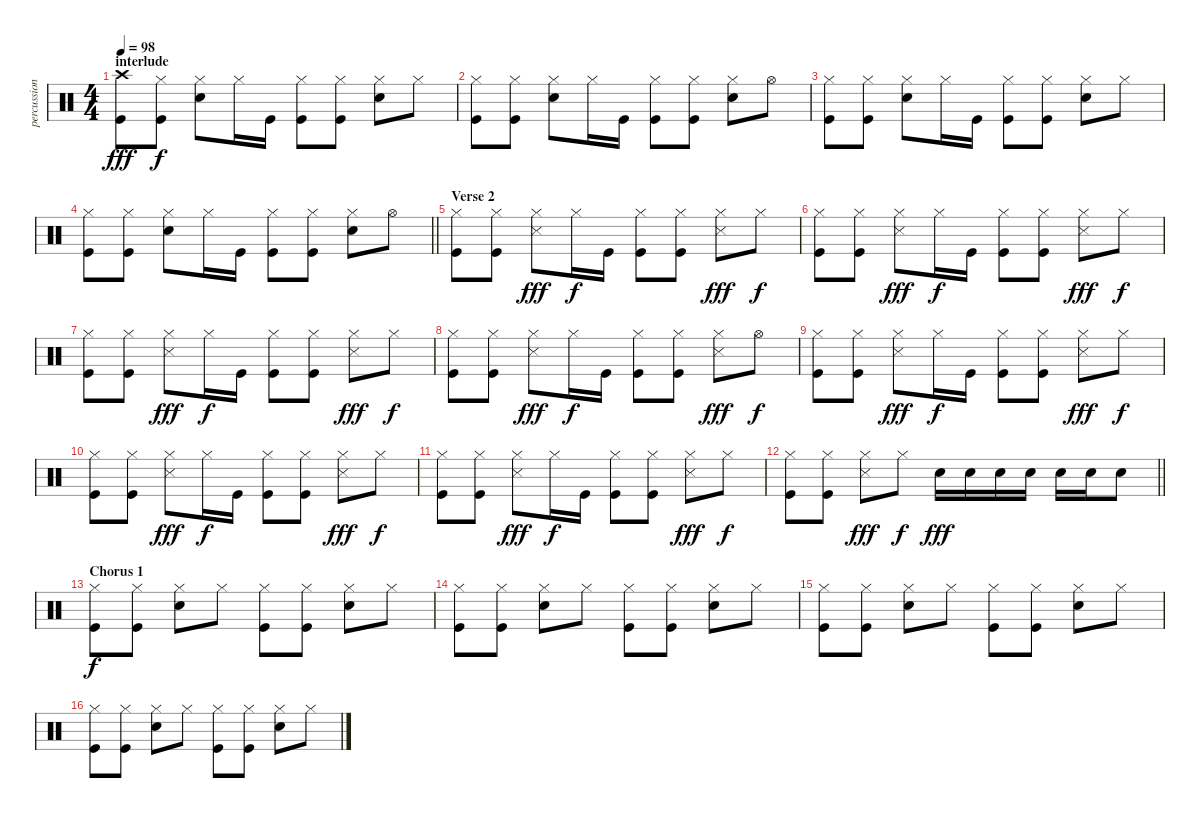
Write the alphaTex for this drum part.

\track ("percussion" "percussion") {instrument percussion}
\staff {score}
\articulation defaults
\ts (4 4)
\section ("" "interlude")
\tempo 98
\clef neutral
\ks c
("Crash high (hit)" "Kick (hit)").8{dy fff} ("Hi-Hat (closed)" "Kick (hit)").8{dy f} ("Electric Snare (hit)" "Hi-Hat (closed)").8 "Hi-Hat (closed)".16 "Kick (hit)".16 ("Hi-Hat (closed)" "Kick (hit)").8 ("Hi-Hat (closed)" "Kick (hit)").8 ("Electric Snare (hit)" "Hi-Hat (closed)").8 "Hi-Hat (closed)".8 |
("Hi-Hat (closed)" "Kick (hit)").8 ("Hi-Hat (closed)" "Kick (hit)").8 ("Electric Snare (hit)" "Hi-Hat (closed)").8 "Hi-Hat (closed)".16 "Kick (hit)".16 ("Hi-Hat (closed)" "Kick (hit)").8 ("Hi-Hat (closed)" "Kick (hit)").8 ("Electric Snare (hit)" "Hi-Hat (closed)").8 "Hi-Hat (open)".8 |
("Hi-Hat (closed)" "Kick (hit)").8 ("Hi-Hat (closed)" "Kick (hit)").8 ("Electric Snare (hit)" "Hi-Hat (closed)").8 "Hi-Hat (closed)".16 "Kick (hit)".16 ("Hi-Hat (closed)" "Kick (hit)").8 ("Hi-Hat (closed)" "Kick (hit)").8 ("Electric Snare (hit)" "Hi-Hat (closed)").8 "Hi-Hat (closed)".8 |
\barLineRight lightlight
("Hi-Hat (closed)" "Kick (hit)").8 ("Hi-Hat (closed)" "Kick (hit)").8 ("Electric Snare (hit)" "Hi-Hat (closed)").8 "Hi-Hat (closed)".16 "Kick (hit)".16 ("Hi-Hat (closed)" "Kick (hit)").8 ("Hi-Hat (closed)" "Kick (hit)").8 ("Electric Snare (hit)" "Hi-Hat (closed)").8 "Hi-Hat (open)".8 |
\section ("" "Verse 2")
("Hi-Hat (closed)" "Kick (hit)").8 ("Hi-Hat (closed)" "Kick (hit)").8 ("Snare (side stick) 3" "Hi-Hat (closed)").8{dy fff} "Hi-Hat (closed)".16{dy f} "Kick (hit)".16 ("Hi-Hat (closed)" "Kick (hit)").8 ("Hi-Hat (closed)" "Kick (hit)").8 ("Snare (side stick) 3" "Hi-Hat (closed)").8{dy fff} "Hi-Hat (closed)".8{dy f} |
("Hi-Hat (closed)" "Kick (hit)").8 ("Hi-Hat (closed)" "Kick (hit)").8 ("Snare (side stick) 3" "Hi-Hat (closed)").8{dy fff} "Hi-Hat (closed)".16{dy f} "Kick (hit)".16 ("Hi-Hat (closed)" "Kick (hit)").8 ("Hi-Hat (closed)" "Kick (hit)").8 ("Snare (side stick) 3" "Hi-Hat (closed)").8{dy fff} "Hi-Hat (closed)".8{dy f} |
("Hi-Hat (closed)" "Kick (hit)").8 ("Hi-Hat (closed)" "Kick (hit)").8 ("Snare (side stick) 3" "Hi-Hat (closed)").8{dy fff} "Hi-Hat (closed)".16{dy f} "Kick (hit)".16 ("Hi-Hat (closed)" "Kick (hit)").8 ("Hi-Hat (closed)" "Kick (hit)").8 ("Snare (side stick) 3" "Hi-Hat (closed)").8{dy fff} "Hi-Hat (closed)".8{dy f} |
("Hi-Hat (closed)" "Kick (hit)").8 ("Hi-Hat (closed)" "Kick (hit)").8 ("Snare (side stick) 3" "Hi-Hat (closed)").8{dy fff} "Hi-Hat (closed)".16{dy f} "Kick (hit)".16 ("Hi-Hat (closed)" "Kick (hit)").8 ("Hi-Hat (closed)" "Kick (hit)").8 ("Snare (side stick) 3" "Hi-Hat (closed)").8{dy fff} "Hi-Hat (open)".8{dy f} |
("Hi-Hat (closed)" "Kick (hit)").8 ("Hi-Hat (closed)" "Kick (hit)").8 ("Snare (side stick) 3" "Hi-Hat (closed)").8{dy fff} "Hi-Hat (closed)".16{dy f} "Kick (hit)".16 ("Hi-Hat (closed)" "Kick (hit)").8 ("Hi-Hat (closed)" "Kick (hit)").8 ("Snare (side stick) 3" "Hi-Hat (closed)").8{dy fff} "Hi-Hat (closed)".8{dy f} |
("Hi-Hat (closed)" "Kick (hit)").8 ("Hi-Hat (closed)" "Kick (hit)").8 ("Snare (side stick) 3" "Hi-Hat (closed)").8{dy fff} "Hi-Hat (closed)".16{dy f} "Kick (hit)".16 ("Hi-Hat (closed)" "Kick (hit)").8 ("Hi-Hat (closed)" "Kick (hit)").8 ("Snare (side stick) 3" "Hi-Hat (closed)").8{dy fff} "Hi-Hat (closed)".8{dy f} |
("Hi-Hat (closed)" "Kick (hit)").8 ("Hi-Hat (closed)" "Kick (hit)").8 ("Snare (side stick) 3" "Hi-Hat (closed)").8{dy fff} "Hi-Hat (closed)".16{dy f} "Kick (hit)".16 ("Hi-Hat (closed)" "Kick (hit)").8 ("Hi-Hat (closed)" "Kick (hit)").8 ("Snare (side stick) 3" "Hi-Hat (closed)").8{dy fff} "Hi-Hat (closed)".8{dy f} |
\barLineRight lightlight
("Hi-Hat (closed)" "Kick (hit)").8 ("Hi-Hat (closed)" "Kick (hit)").8 ("Snare (side stick) 3" "Hi-Hat (closed)").8{dy fff} "Hi-Hat (closed)".8{dy f} "Electric Snare (hit)".16{dy fff} "Electric Snare (hit)".16 "Electric Snare (hit)".16 "Electric Snare (hit)".16 "Electric Snare (hit)".16 "Electric Snare (hit)".16 "Electric Snare (hit)".8 |
\section ("" "Chorus 1")
("Hi-Hat (closed)" "Kick (hit)").8{dy f} ("Hi-Hat (closed)" "Kick (hit)").8 ("Electric Snare (hit)" "Hi-Hat (closed)").8 "Hi-Hat (closed)".8 ("Hi-Hat (closed)" "Kick (hit)").8 ("Hi-Hat (closed)" "Kick (hit)").8 ("Electric Snare (hit)" "Hi-Hat (closed)").8 "Hi-Hat (closed)".8 |
("Hi-Hat (closed)" "Kick (hit)").8 ("Hi-Hat (closed)" "Kick (hit)").8 ("Electric Snare (hit)" "Hi-Hat (closed)").8 "Hi-Hat (closed)".8 ("Hi-Hat (closed)" "Kick (hit)").8 ("Hi-Hat (closed)" "Kick (hit)").8 ("Electric Snare (hit)" "Hi-Hat (closed)").8 "Hi-Hat (closed)".8 |
("Hi-Hat (closed)" "Kick (hit)").8 ("Hi-Hat (closed)" "Kick (hit)").8 ("Electric Snare (hit)" "Hi-Hat (closed)").8 "Hi-Hat (closed)".8 ("Hi-Hat (closed)" "Kick (hit)").8 ("Hi-Hat (closed)" "Kick (hit)").8 ("Electric Snare (hit)" "Hi-Hat (closed)").8 "Hi-Hat (closed)".8 |
("Hi-Hat (closed)" "Kick (hit)").8 ("Hi-Hat (closed)" "Kick (hit)").8 ("Electric Snare (hit)" "Hi-Hat (closed)").8 "Hi-Hat (closed)".8 ("Hi-Hat (closed)" "Kick (hit)").8 ("Hi-Hat (closed)" "Kick (hit)").8 ("Electric Snare (hit)" "Hi-Hat (closed)").8 "Hi-Hat (closed)".8
